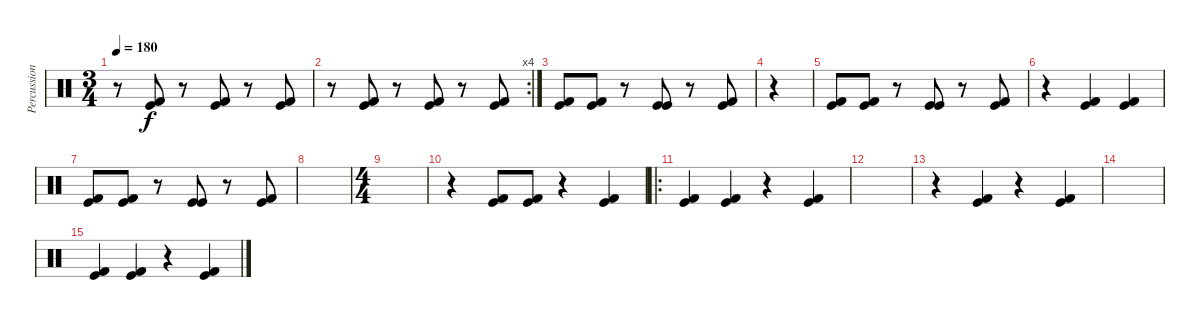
\track ("Percussion" "Percussion") {instrument percussion}
\staff {score}
\articulation defaults
\ts (3 4)
\tempo 180
\clef neutral
\ks c
r.8{dy f} ("Kick (hit) 2" "Kick (hit)").8 r.8 ("Kick (hit) 2" "Kick (hit)").8 r.8 ("Kick (hit) 2" "Kick (hit)").8 |
\rc 4
r.8 ("Kick (hit) 2" "Kick (hit)").8 r.8 ("Kick (hit) 2" "Kick (hit)").8 r.8 ("Kick (hit) 2" "Kick (hit)").8 |
("Kick (hit) 2" "Kick (hit)").8 ("Kick (hit) 2" "Kick (hit)").8 r.8 ("Kick (hit)" "Kick (hit)").8 r.8 ("Kick (hit) 2" "Kick (hit)").8 |
r.4 |
("Kick (hit) 2" "Kick (hit)").8 ("Kick (hit) 2" "Kick (hit)").8 r.8 ("Kick (hit)" "Kick (hit)").8 r.8 ("Kick (hit) 2" "Kick (hit)").8 |
r.4 ("Kick (hit) 2" "Kick (hit)").4 ("Kick (hit) 2" "Kick (hit)").4 |
("Kick (hit) 2" "Kick (hit)").8 ("Kick (hit) 2" "Kick (hit)").8 r.8 ("Kick (hit)" "Kick (hit)").8 r.8 ("Kick (hit) 2" "Kick (hit)").8 |
|
\ts (4 4)
|
r.4 ("Kick (hit) 2" "Kick (hit)").8 ("Kick (hit) 2" "Kick (hit)").8 r.4 ("Kick (hit) 2" "Kick (hit)").4 |
\ro
("Kick (hit) 2" "Kick (hit)").4 ("Kick (hit) 2" "Kick (hit)").4 r.4 ("Kick (hit) 2" "Kick (hit)").4 |
|
r.4 ("Kick (hit) 2" "Kick (hit)").4 r.4 ("Kick (hit) 2" "Kick (hit)").4 |
|
("Kick (hit) 2" "Kick (hit)").4 ("Kick (hit) 2" "Kick (hit)").4 r.4 ("Kick (hit) 2" "Kick (hit)").4
